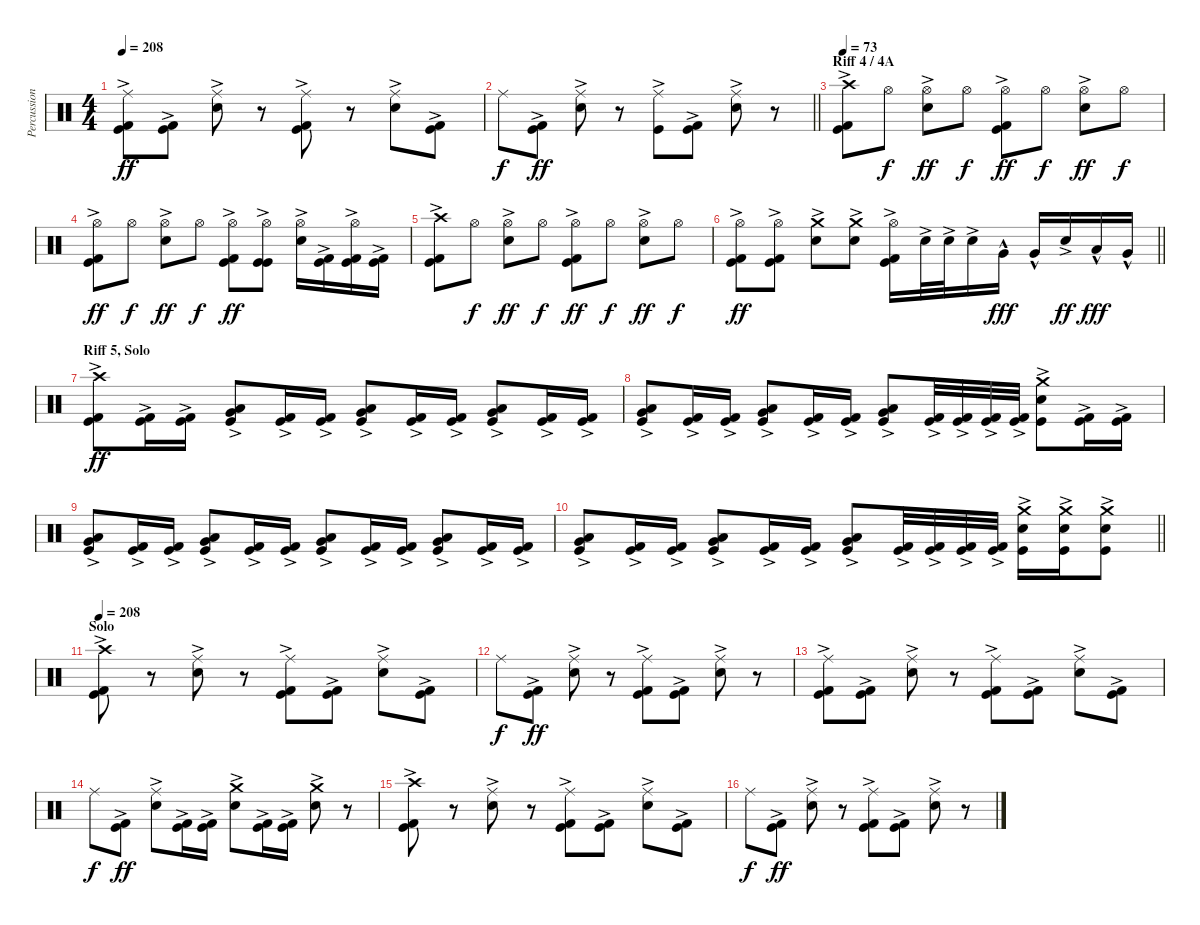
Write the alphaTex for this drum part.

\track ("Percussion" "Percussion") {instrument percussion}
\staff {score}
\articulation defaults
\ts (4 4)
\tempo 208
\clef neutral
\ks c
("Kick (hit) 2"{ac} "Kick (hit)"{ac} "Ride (middle)").8{dy ff} ("Kick (hit) 2"{ac} "Kick (hit)"{ac}).8 ("Snare (hit) 2"{ac} "Ride (middle)").8 r.8 ("Kick (hit) 2"{ac} "Kick (hit)"{ac} "Ride (middle)").8 r.8 ("Snare (hit) 2"{ac} "Ride (middle)").8 ("Kick (hit)"{ac} "Kick (hit) 2"{ac}).8 |
\barLineRight lightlight "Ride (middle)".8{dy f}
("Kick (hit)"{ac} "Kick (hit) 2"{ac}).8{dy ff} ("Snare (hit) 2"{ac} "Ride (middle)").8 r.8 ("Kick (hit)"{ac} "Ride (middle)").8 ("Kick (hit)"{ac} "Kick (hit) 2"{ac}).8 ("Snare (hit) 2"{ac} "Ride (middle)").8 r.8 |
\section ("" "Riff 4 / 4A")
\tempo 73
("Kick (hit) 2"{ac} "Crash high (hit)" "Kick (hit)"{ac}).8 "Hi-Hat (open)".8{dy f} ("Snare (hit) 2"{ac} "Hi-Hat (open)").8{dy ff} "Hi-Hat (open)".8{dy f} ("Kick (hit) 2"{ac} "Hi-Hat (open)" "Kick (hit)"{ac}).8{dy ff} "Hi-Hat (open)".8{dy f} ("Hi-Hat (open)" "Snare (hit) 2"{ac}).8{dy ff} "Hi-Hat (open)".8{dy f} |
("Kick (hit) 2"{ac} "Hi-Hat (open)" "Kick (hit)"{ac}).8{dy ff} "Hi-Hat (open)".8{dy f} ("Snare (hit) 2"{ac} "Hi-Hat (open)").8{dy ff} "Hi-Hat (open)".8{dy f} ("Kick (hit) 2"{ac} "Hi-Hat (open)" "Kick (hit)"{ac}).8{dy ff} ("Kick (hit)"{ac} "Hi-Hat (open)" "Kick (hit)"{ac}).8 ("Hi-Hat (open)" "Snare (hit) 2"{ac}).16 ("Kick (hit)"{ac} "Kick (hit) 2"{ac}).16 ("Hi-Hat (open)" "Kick (hit)"{ac} "Kick (hit) 2"{ac}).16 ("Kick (hit)"{ac} "Kick (hit) 2"{ac}).16 |
("Kick (hit) 2"{ac} "Crash high (hit)" "Kick (hit)"{ac}).8 "Hi-Hat (open)".8{dy f} ("Snare (hit) 2"{ac} "Hi-Hat (open)").8{dy ff} "Hi-Hat (open)".8{dy f} ("Kick (hit) 2"{ac} "Hi-Hat (open)" "Kick (hit)"{ac}).8{dy ff} "Hi-Hat (open)".8{dy f} ("Hi-Hat (open)" "Snare (hit) 2"{ac}).8{dy ff} "Hi-Hat (open)".8{dy f} |
\barLineRight lightlight
("Kick (hit) 2"{ac} "Hi-Hat (open)" "Kick (hit)"{ac}).8{dy ff} ("Kick (hit)"{ac} "Hi-Hat (open)" "Kick (hit) 2"{ac}).8 ("Snare (hit) 2"{ac} "Crash medium (hit)").8 ("Snare (hit) 2"{ac} "Crash medium (hit)").8 ("Kick (hit) 2"{ac} "Hi-Hat (open)" "Kick (hit)"{ac}).16 "Snare (hit) 2"{ac}.32 "Snare (hit) 2"{ac}.32 "Snare (hit) 2"{ac}.16 "Very Low Tom (hit)"{hac}.16{dy fff} "Very Low Tom (hit)"{hac}.16 "Snare (hit) 2"{ac}.16{dy ff} "Low Tom (hit)"{hac}.16{dy fff} "Very Low Tom (hit)"{hac}.16 |
\section ("" "Riff 5, Solo")
("Kick (hit)" "Crash high (hit)" "Kick (hit) 2"{ac}).8{dy ff} ("Kick (hit)"{ac} "Kick (hit) 2"{ac}).16 ("Kick (hit)"{ac} "Kick (hit) 2"{ac}).16 ("Kick (hit)"{ac} "Low Floor Tom (hit)"{ac} "Very Low Tom (hit)"{ac}).8 ("Kick (hit)"{ac} "Kick (hit) 2"{ac}).16 ("Kick (hit)"{ac} "Kick (hit) 2"{ac}).16 ("Kick (hit)"{ac} "Low Floor Tom (hit)"{ac} "Very Low Tom (hit)"{ac}).8 ("Kick (hit)"{ac} "Kick (hit) 2"{ac}).16 ("Kick (hit)"{ac} "Kick (hit) 2"{ac}).16 ("Kick (hit)"{ac} "Low Floor Tom (hit)"{ac} "Very Low Tom (hit)"{ac}).8 ("Kick (hit)"{ac} "Kick (hit) 2"{ac}).16 ("Kick (hit)"{ac} "Kick (hit) 2"{ac}).16 |
("Kick (hit)"{ac} "Low Floor Tom (hit)"{ac} "Very Low Tom (hit)"{ac}).8 ("Kick (hit)"{ac} "Kick (hit) 2"{ac}).16 ("Kick (hit)"{ac} "Kick (hit) 2"{ac}).16 ("Kick (hit)"{ac} "Low Floor Tom (hit)"{ac} "Very Low Tom (hit)"{ac}).8 ("Kick (hit)"{ac} "Kick (hit) 2"{ac}).16 ("Kick (hit)"{ac} "Kick (hit) 2"{ac}).16 ("Kick (hit)"{ac} "Low Floor Tom (hit)"{ac} "Very Low Tom (hit)"{ac}).8 ("Kick (hit)"{ac} "Kick (hit) 2"{ac}).32 ("Kick (hit)"{ac} "Kick (hit) 2"{ac}).32 ("Kick (hit)"{ac} "Kick (hit) 2"{ac}).32 ("Kick (hit)"{ac} "Kick (hit) 2"{ac}).32 ("Kick (hit)"{ac} "Snare (hit) 2"{ac} "Crash medium (hit)"{ac}).8 ("Kick (hit)"{ac} "Kick (hit) 2"{ac}).16 ("Kick (hit)"{ac} "Kick (hit) 2"{ac}).16 |
("Kick (hit)"{ac} "Low Floor Tom (hit)"{ac} "Very Low Tom (hit)"{ac}).8 ("Kick (hit)"{ac} "Kick (hit) 2"{ac}).16 ("Kick (hit)"{ac} "Kick (hit) 2"{ac}).16 ("Kick (hit)"{ac} "Low Floor Tom (hit)"{ac} "Very Low Tom (hit)"{ac}).8 ("Kick (hit)"{ac} "Kick (hit) 2"{ac}).16 ("Kick (hit)"{ac} "Kick (hit) 2"{ac}).16 ("Kick (hit)"{ac} "Low Floor Tom (hit)"{ac} "Very Low Tom (hit)"{ac}).8 ("Kick (hit)"{ac} "Kick (hit) 2"{ac}).16 ("Kick (hit)"{ac} "Kick (hit) 2"{ac}).16 ("Kick (hit)"{ac} "Low Floor Tom (hit)"{ac} "Very Low Tom (hit)"{ac}).8 ("Kick (hit)"{ac} "Kick (hit) 2"{ac}).16 ("Kick (hit)"{ac} "Kick (hit) 2"{ac}).16 |
\barLineRight lightlight
("Kick (hit)"{ac} "Low Floor Tom (hit)"{ac} "Very Low Tom (hit)"{ac}).8 ("Kick (hit)"{ac} "Kick (hit) 2"{ac}).16 ("Kick (hit)"{ac} "Kick (hit) 2"{ac}).16 ("Kick (hit)"{ac} "Low Floor Tom (hit)"{ac} "Very Low Tom (hit)"{ac}).8 ("Kick (hit)"{ac} "Kick (hit) 2"{ac}).16 ("Kick (hit)"{ac} "Kick (hit) 2"{ac}).16 ("Kick (hit)"{ac} "Low Floor Tom (hit)"{ac} "Very Low Tom (hit)"{ac}).8 ("Kick (hit)"{ac} "Kick (hit) 2"{ac}).32 ("Kick (hit)"{ac} "Kick (hit) 2"{ac}).32 ("Kick (hit)"{ac} "Kick (hit) 2"{ac}).32 ("Kick (hit)"{ac} "Kick (hit) 2"{ac}).32 ("Kick (hit)"{ac} "Snare (hit) 2"{ac} "Crash medium (hit)"{ac}).16 ("Snare (hit) 2"{ac} "Kick (hit)"{ac} "Crash medium (hit)").16 ("Snare (hit) 2"{ac} "Kick (hit)"{ac} "Crash medium (hit)").8 |
\section ("" "Solo")
\tempo 208
("Kick (hit) 2"{ac} "Kick (hit)"{ac} "Crash high (hit)").8 r.8 ("Snare (hit) 2"{ac} "Ride (middle)").8 r.8 ("Kick (hit) 2"{ac} "Kick (hit)"{ac} "Ride (middle)").8 ("Kick (hit) 2"{ac} "Kick (hit)"{ac}).8 ("Snare (hit) 2"{ac} "Ride (middle)").8 ("Kick (hit) 2"{ac} "Kick (hit)"{ac}).8 |
"Ride (middle)".8{dy f} ("Kick (hit)"{ac} "Kick (hit) 2"{ac}).8{dy ff} ("Snare (hit) 2"{ac} "Ride (middle)").8 r.8 ("Kick (hit) 2"{ac} "Kick (hit)"{ac} "Ride (middle)").8 ("Kick (hit) 2"{ac} "Kick (hit)"{ac}).8 ("Snare (hit) 2"{ac} "Ride (middle)").8 r.8 |
("Kick (hit) 2"{ac} "Kick (hit)"{ac} "Ride (middle)").8 ("Kick (hit) 2"{ac} "Kick (hit)"{ac}).8 ("Snare (hit) 2"{ac} "Ride (middle)").8 r.8 ("Kick (hit) 2"{ac} "Kick (hit)"{ac} "Ride (middle)").8 ("Kick (hit) 2"{ac} "Kick (hit)"{ac}).8 ("Snare (hit) 2"{ac} "Ride (middle)").8 ("Kick (hit)"{ac} "Kick (hit) 2"{ac}).8 |
"Ride (middle)".8{dy f} ("Kick (hit)"{ac} "Kick (hit) 2"{ac}).8{dy ff} ("Snare (hit) 2"{ac} "Ride (middle)").8 ("Kick (hit)"{ac} "Kick (hit) 2"{ac}).16 ("Kick (hit)"{ac} "Kick (hit) 2"{ac}).16 ("Snare (hit) 2"{ac} "Crash medium (hit)").8 ("Kick (hit)"{ac} "Kick (hit) 2"{ac}).16 ("Kick (hit)"{ac} "Kick (hit) 2"{ac}).16 ("Snare (hit) 2"{ac} "Crash medium (hit)").8 r.8 |
("Kick (hit) 2"{ac} "Kick (hit)"{ac} "Crash high (hit)").8 r.8 ("Snare (hit) 2"{ac} "Ride (middle)").8 r.8 ("Kick (hit) 2"{ac} "Kick (hit)"{ac} "Ride (middle)").8 ("Kick (hit) 2"{ac} "Kick (hit)"{ac}).8 ("Snare (hit) 2"{ac} "Ride (middle)").8 ("Kick (hit) 2"{ac} "Kick (hit)"{ac}).8 |
"Ride (middle)".8{dy f} ("Kick (hit)"{ac} "Kick (hit) 2"{ac}).8{dy ff} ("Snare (hit) 2"{ac} "Ride (middle)").8 r.8 ("Kick (hit) 2"{ac} "Kick (hit)"{ac} "Ride (middle)").8 ("Kick (hit) 2"{ac} "Kick (hit)"{ac}).8 ("Snare (hit) 2"{ac} "Ride (middle)").8 r.8
